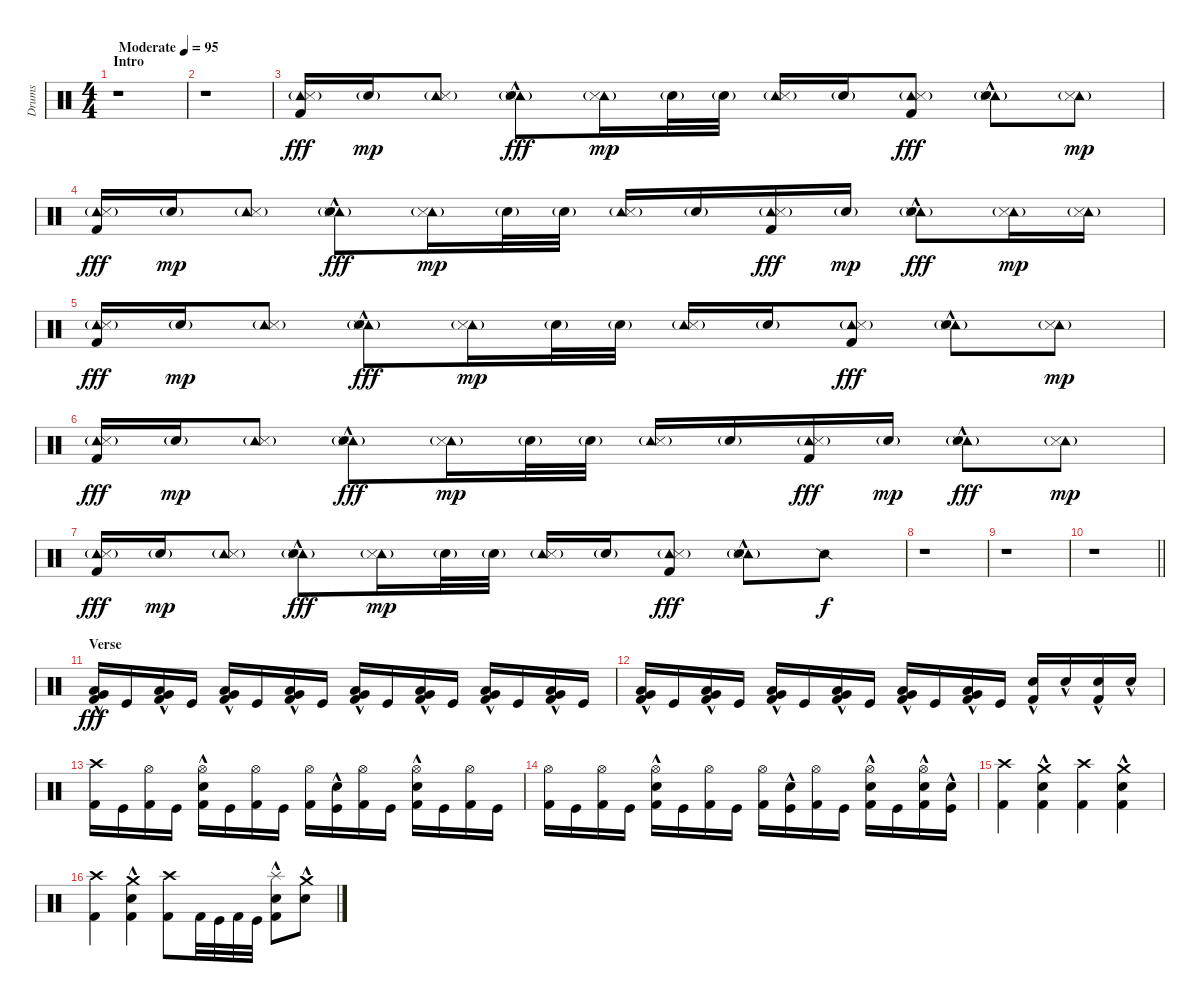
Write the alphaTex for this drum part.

\track ("Drums" "Drums") {instrument percussion}
\staff {score}
\articulation defaults
\ts (4 4)
\section ("" "Intro")
\tempo (95 "Moderate")
\clef neutral
\ks c
r.1{dy fff} |
r.1 |
("Tambourine (hit)"{g} "Metronome (hit)" "Kick (hit) 2").16{volume 7} "Electric Snare (hit)"{g}.16{dy mp} ("Tambourine (hit)"{g} "Metronome (hit)").8 ("Tambourine (hit)"{g} "Metronome (hit)" "Electric Snare (hit)"{hac}).8{dy fff} ("Tambourine (hit)"{g} "Metronome (hit)").16{dy mp} "Electric Snare (hit)"{g}.32 "Electric Snare (hit)"{g}.32 ("Tambourine (hit)"{g} "Metronome (hit)").16 "Electric Snare (hit)"{g}.16 ("Tambourine (hit)"{g} "Metronome (hit)" "Kick (hit) 2").8{dy fff} ("Tambourine (hit)"{g} "Metronome (hit)" "Electric Snare (hit)"{hac}).8 ("Tambourine (hit)"{g} "Metronome (hit)").8{dy mp} |
("Tambourine (hit)"{g} "Metronome (hit)" "Kick (hit) 2").16{dy fff} "Electric Snare (hit)"{g}.16{dy mp} ("Tambourine (hit)"{g} "Metronome (hit)").8 ("Tambourine (hit)"{g} "Metronome (hit)" "Electric Snare (hit)"{hac}).8{dy fff} ("Tambourine (hit)"{g} "Metronome (hit)").16{dy mp} "Electric Snare (hit)"{g}.32 "Electric Snare (hit)"{g}.32 ("Tambourine (hit)"{g} "Metronome (hit)").16 "Electric Snare (hit)"{g}.16 ("Tambourine (hit)"{g} "Metronome (hit)" "Kick (hit) 2").16{dy fff} "Electric Snare (hit)"{g}.16{dy mp} ("Tambourine (hit)"{g} "Metronome (hit)" "Electric Snare (hit)"{hac}).8{dy fff} ("Tambourine (hit)"{g} "Metronome (hit)").16{dy mp} ("Tambourine (hit)"{g} "Metronome (hit)").16 |
("Tambourine (hit)"{g} "Metronome (hit)" "Kick (hit) 2").16{dy fff} "Electric Snare (hit)"{g}.16{dy mp} ("Tambourine (hit)"{g} "Metronome (hit)").8 ("Tambourine (hit)"{g} "Metronome (hit)" "Electric Snare (hit)"{hac}).8{dy fff} ("Tambourine (hit)"{g} "Metronome (hit)").16{dy mp} "Electric Snare (hit)"{g}.32 "Electric Snare (hit)"{g}.32 ("Tambourine (hit)"{g} "Metronome (hit)").16 "Electric Snare (hit)"{g}.16 ("Tambourine (hit)"{g} "Metronome (hit)" "Kick (hit) 2").8{dy fff} ("Tambourine (hit)"{g} "Metronome (hit)" "Electric Snare (hit)"{hac}).8 ("Tambourine (hit)"{g} "Metronome (hit)").8{dy mp} |
("Tambourine (hit)"{g} "Metronome (hit)" "Kick (hit) 2").16{dy fff} "Electric Snare (hit)"{g}.16{dy mp} ("Tambourine (hit)"{g} "Metronome (hit)").8 ("Tambourine (hit)"{g} "Metronome (hit)" "Electric Snare (hit)"{hac}).8{dy fff} ("Tambourine (hit)"{g} "Metronome (hit)").16{dy mp} "Electric Snare (hit)"{g}.32 "Electric Snare (hit)"{g}.32 ("Tambourine (hit)"{g} "Metronome (hit)").16 "Electric Snare (hit)"{g}.16 ("Tambourine (hit)"{g} "Metronome (hit)" "Kick (hit) 2").16{dy fff} "Electric Snare (hit)"{g}.16{dy mp} ("Tambourine (hit)"{g} "Metronome (hit)" "Electric Snare (hit)"{hac}).8{dy fff} ("Tambourine (hit)"{g} "Metronome (hit)").8{dy mp} |
("Tambourine (hit)"{g} "Metronome (hit)" "Kick (hit) 2").16{dy fff} "Electric Snare (hit)"{g}.16{dy mp} ("Tambourine (hit)"{g} "Metronome (hit)").8 ("Tambourine (hit)"{g} "Metronome (hit)" "Electric Snare (hit)"{hac}).8{dy fff} ("Tambourine (hit)"{g} "Metronome (hit)").16{dy mp} "Electric Snare (hit)"{g}.32 "Electric Snare (hit)"{g}.32 ("Tambourine (hit)"{g} "Metronome (hit)").16 "Electric Snare (hit)"{g}.16 ("Tambourine (hit)"{g} "Metronome (hit)" "Kick (hit) 2").8{dy fff} ("Tambourine (hit)"{g} "Metronome (hit)" "Electric Snare (hit)"{hac}).8 "Snare (side stick) 2".8{dy f} |
r.1 |
r.1 |
\barLineRight lightlight
r.1 |
\section ("" "Verse")
("Low Tom (hit)"{hac} "Very Low Tom (hit)"{hac} "Kick (hit) 2").16{dy fff volume 10} "Kick (hit)".16 ("Low Tom (hit)"{hac} "Very Low Tom (hit)"{hac} "Kick (hit) 2").16 "Kick (hit)".16 ("Low Tom (hit)"{hac} "Very Low Tom (hit)"{hac} "Kick (hit) 2").16 "Kick (hit)".16 ("Low Tom (hit)"{hac} "Very Low Tom (hit)"{hac} "Kick (hit) 2").16 "Kick (hit)".16 ("Low Tom (hit)"{hac} "Very Low Tom (hit)"{hac} "Kick (hit) 2").16 "Kick (hit)".16 ("Low Tom (hit)"{hac} "Very Low Tom (hit)"{hac} "Kick (hit) 2").16 "Kick (hit)".16 ("Low Tom (hit)"{hac} "Very Low Tom (hit)"{hac} "Kick (hit) 2").16 "Kick (hit)".16 ("Low Tom (hit)"{hac} "Very Low Tom (hit)"{hac} "Kick (hit) 2").16 "Kick (hit)".16 |
("Low Tom (hit)"{hac} "Very Low Tom (hit)"{hac} "Kick (hit) 2").16 "Kick (hit)".16 ("Low Tom (hit)"{hac} "Very Low Tom (hit)"{hac} "Kick (hit) 2").16 "Kick (hit)".16 ("Low Tom (hit)"{hac} "Very Low Tom (hit)"{hac} "Kick (hit) 2").16 "Kick (hit)".16 ("Low Tom (hit)"{hac} "Very Low Tom (hit)"{hac} "Kick (hit) 2").16 "Kick (hit)".16 ("Low Tom (hit)"{hac} "Very Low Tom (hit)"{hac} "Kick (hit) 2").16 "Kick (hit)".16 ("Low Tom (hit)"{hac} "Very Low Tom (hit)"{hac} "Kick (hit) 2").16 "Kick (hit)".16 ("Electric Snare (hit)"{hac} "Kick (hit) 2").16 "Electric Snare (hit)"{hac}.16 ("Electric Snare (hit)"{hac} "Kick (hit) 2").16 "Electric Snare (hit)"{hac}.16 |
("Crash high (hit)" "Kick (hit) 2").16 "Kick (hit)".16 ("Hi-Hat (open)" "Kick (hit) 2").16 "Kick (hit)".16 ("Hi-Hat (open)" "Electric Snare (hit)"{hac} "Kick (hit) 2").16 "Kick (hit)".16 ("Hi-Hat (open)" "Kick (hit) 2").16 "Kick (hit)".16 ("Hi-Hat (open)" "Kick (hit) 2").16 ("Electric Snare (hit)"{hac} "Kick (hit)").16 ("Hi-Hat (open)" "Kick (hit) 2").16 "Kick (hit)".16 ("Hi-Hat (open)" "Electric Snare (hit)"{hac} "Kick (hit) 2").16 "Kick (hit)".16 ("Hi-Hat (open)" "Kick (hit) 2").16 "Kick (hit)".16 |
("Hi-Hat (open)" "Kick (hit) 2").16 "Kick (hit)".16 ("Hi-Hat (open)" "Kick (hit) 2").16 "Kick (hit)".16 ("Hi-Hat (open)" "Electric Snare (hit)"{hac} "Kick (hit) 2").16 "Kick (hit)".16 ("Hi-Hat (open)" "Kick (hit) 2").16 "Kick (hit)".16 ("Hi-Hat (open)" "Kick (hit) 2").16 ("Electric Snare (hit)"{hac} "Kick (hit)").16 ("Hi-Hat (open)" "Kick (hit) 2").16 "Kick (hit)".16 ("Hi-Hat (open)" "Electric Snare (hit)"{hac} "Kick (hit) 2").16 "Kick (hit)".16 ("Hi-Hat (open)" "Electric Snare (hit)"{hac} "Kick (hit) 2").16 ("Electric Snare (hit)"{hac} "Kick (hit)").16 |
("Crash high (hit)" "Kick (hit) 2").4 ("Crash medium (hit)" "Electric Snare (hit)"{hac} "Kick (hit) 2").4 ("Crash high (hit)" "Kick (hit) 2").4 ("Crash medium (hit)" "Electric Snare (hit)"{hac} "Kick (hit) 2").4 |
("Crash high (hit)" "Kick (hit) 2").4 ("Crash medium (hit)" "Electric Snare (hit)"{hac} "Kick (hit) 2").4 ("Crash high (hit)" "Kick (hit) 2").8 "Kick (hit) 2".32 "Kick (hit)".32 "Kick (hit) 2".32 "Kick (hit)".32 ("Splash (hit)" "Electric Snare (hit)"{hac} "Kick (hit) 2").8 ("Crash medium (hit)" "Electric Snare (hit)"{hac}).8
